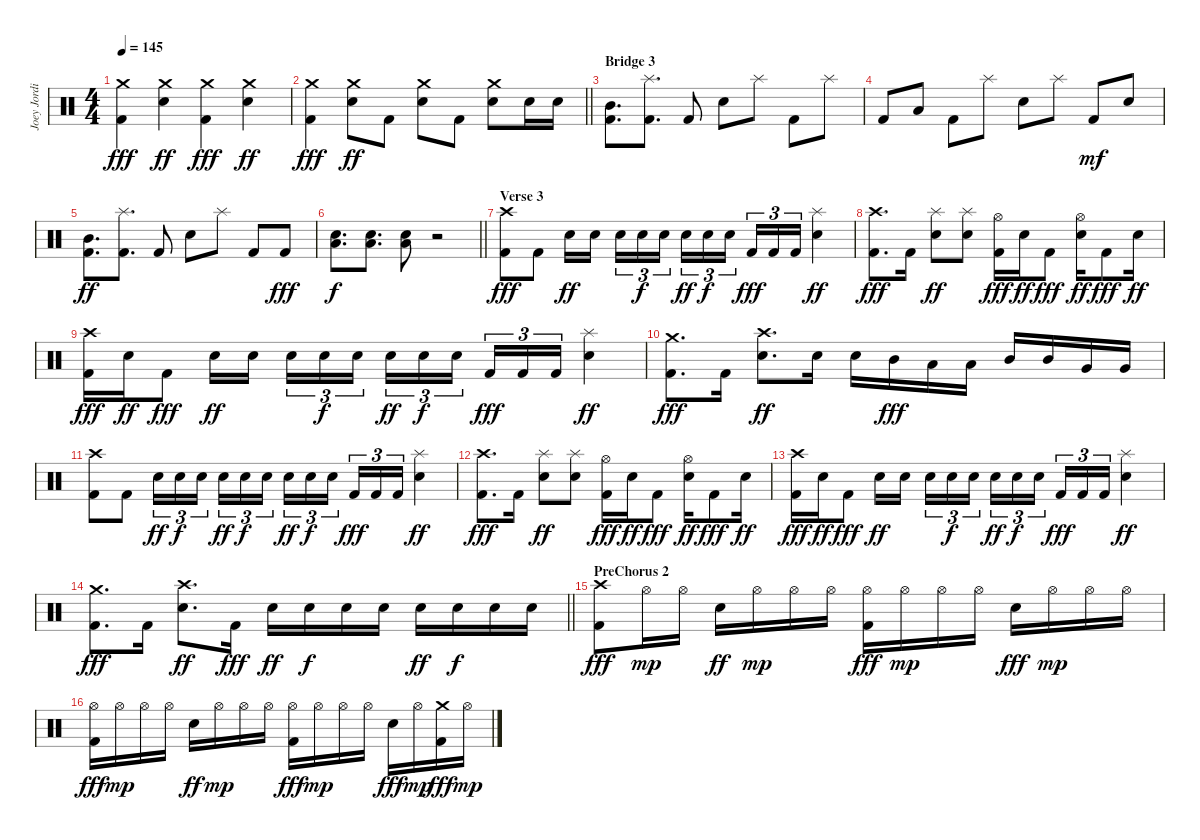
\track ("Joey Jordison" "Joey Jordi") {instrument percussion}
\staff {score}
\articulation defaults
\ts (4 4)
\tempo 145
\clef neutral
\ks c
("Crash medium (hit)" "Kick (hit) 2").4{dy fff} ("Crash medium (hit)" "Electric Snare (hit)").4{dy ff} ("Crash medium (hit)" "Kick (hit) 2").4{dy fff} ("Crash medium (hit)" "Electric Snare (hit)").4{dy ff} |
\barLineRight lightlight
("Crash medium (hit)" "Kick (hit) 2").4{dy fff} ("Crash medium (hit)" "Electric Snare (hit)").8{dy ff} "Kick (hit) 2".8 ("Crash medium (hit)" "Electric Snare (hit)").8 "Kick (hit) 2".8 ("Crash medium (hit)" "Electric Snare (hit)").8 "Electric Snare (hit)".16 "Electric Snare (hit)".16 |
\section ("" "Bridge 3")
("Mid Tom (hit)" "Kick (hit) 2").8{d} ("Splash (hit)" "Kick (hit) 2").8{d} "Kick (hit) 2".8 "Electric Snare (hit)".8 "Splash (hit)".8 "Kick (hit) 2".8 "Splash (hit)".8 |
"Kick (hit) 2".8 "Low Tom (hit)".8 "Kick (hit) 2".8 "Splash (hit)".8 "Electric Snare (hit)".8 "Splash (hit)".8 "Kick (hit) 2".8{dy mf} "Electric Snare (hit)".8 |
("Mid Tom (hit)" "Kick (hit) 2").8{d dy ff} ("Splash (hit)" "Kick (hit) 2").8{d} "Kick (hit) 2".8 "Electric Snare (hit)".8 "Splash (hit)".8 "Kick (hit) 2".8 "Kick (hit) 2".8{dy fff} |
\barLineRight lightlight
("Electric Snare (hit)" "Low Floor Tom (hit)").8{d dy f} ("Electric Snare (hit)" "Low Floor Tom (hit)").8{d} ("Electric Snare (hit)" "Low Floor Tom (hit)").8 r.2 |
\section ("" "Verse 3")
("Crash high (hit)" "Kick (hit) 2").8{dy fff} "Kick (hit) 2".8 "Electric Snare (hit)".16{dy ff} "Electric Snare (hit)".16{beam splitsecondary} "Electric Snare (hit)".16{tu (3 2)} "Electric Snare (hit)".16{tu (3 2) dy f} "Electric Snare (hit)".16{tu (3 2)} "Electric Snare (hit)".16{tu (3 2) dy ff} "Electric Snare (hit)".16{tu (3 2) dy f} "Electric Snare (hit)".16{tu (3 2) beam splitsecondary} "Kick (hit) 2".16{tu (3 2) dy fff} "Kick (hit) 2".16{tu (3 2)} "Kick (hit) 2".16{tu (3 2)} ("Splash (hit)" "Electric Snare (hit)").4{dy ff} |
("Crash high (hit)" "Kick (hit) 2").8{d dy fff} "Kick (hit) 2".16 ("Splash (hit)" "Electric Snare (hit)").8{dy ff} ("Splash (hit)" "Electric Snare (hit)").8 ("Hi-Hat (open)" "Kick (hit) 2").16{dy fff} "Electric Snare (hit)".16{dy ff} "Kick (hit) 2".8{dy fff} ("Hi-Hat (open)" "Electric Snare (hit)").16{dy ff} "Kick (hit) 2".8{dy fff} "Electric Snare (hit)".16{dy ff} |
("Crash high (hit)" "Kick (hit) 2").16{dy fff} "Electric Snare (hit)".16{dy ff} "Kick (hit) 2".8{dy fff} "Electric Snare (hit)".16{dy ff} "Electric Snare (hit)".16{beam splitsecondary} "Electric Snare (hit)".16{tu (3 2)} "Electric Snare (hit)".16{tu (3 2) dy f} "Electric Snare (hit)".16{tu (3 2)} "Electric Snare (hit)".16{tu (3 2) dy ff} "Electric Snare (hit)".16{tu (3 2) dy f} "Electric Snare (hit)".16{tu (3 2) beam splitsecondary} "Kick (hit) 2".16{tu (3 2) dy fff} "Kick (hit) 2".16{tu (3 2)} "Kick (hit) 2".16{tu (3 2)} ("Splash (hit)" "Electric Snare (hit)").4{dy ff} |
("Crash medium (hit)" "Kick (hit) 2").8{d dy fff} "Kick (hit) 2".16 ("Crash high (hit)" "Electric Snare (hit)").8{d dy ff} "Electric Snare (hit)".16 "Electric Snare (hit)".16 "Mid Tom (hit)".16{dy fff} "Low Tom (hit)".16 "Low Tom (hit)".16 "Mid Tom (hit)".16 "Mid Tom (hit)".16 "Very Low Tom (hit)".16 "Very Low Tom (hit)".16 |
("Crash high (hit)" "Kick (hit) 2").8 "Kick (hit) 2".8 "Electric Snare (hit)".16{tu (3 2) dy ff} "Electric Snare (hit)".16{tu (3 2) dy f} "Electric Snare (hit)".16{tu (3 2) beam splitsecondary} "Electric Snare (hit)".16{tu (3 2) dy ff} "Electric Snare (hit)".16{tu (3 2) dy f} "Electric Snare (hit)".16{tu (3 2)} "Electric Snare (hit)".16{tu (3 2) dy ff} "Electric Snare (hit)".16{tu (3 2) dy f} "Electric Snare (hit)".16{tu (3 2) beam splitsecondary} "Kick (hit) 2".16{tu (3 2) dy fff} "Kick (hit) 2".16{tu (3 2)} "Kick (hit) 2".16{tu (3 2)} ("Splash (hit)" "Electric Snare (hit)").4{dy ff} |
("Crash high (hit)" "Kick (hit) 2").8{d dy fff} "Kick (hit) 2".16 ("Splash (hit)" "Electric Snare (hit)").8{dy ff} ("Splash (hit)" "Electric Snare (hit)").8 ("Hi-Hat (open)" "Kick (hit) 2").16{dy fff} "Electric Snare (hit)".16{dy ff} "Kick (hit) 2".8{dy fff} ("Hi-Hat (open)" "Electric Snare (hit)").16{dy ff} "Kick (hit) 2".8{dy fff} "Electric Snare (hit)".16{dy ff} |
("Crash high (hit)" "Kick (hit) 2").16{dy fff} "Electric Snare (hit)".16{dy ff} "Kick (hit) 2".8{dy fff} "Electric Snare (hit)".16{dy ff} "Electric Snare (hit)".16{beam splitsecondary} "Electric Snare (hit)".16{tu (3 2)} "Electric Snare (hit)".16{tu (3 2) dy f} "Electric Snare (hit)".16{tu (3 2)} "Electric Snare (hit)".16{tu (3 2) dy ff} "Electric Snare (hit)".16{tu (3 2) dy f} "Electric Snare (hit)".16{tu (3 2) beam splitsecondary} "Kick (hit) 2".16{tu (3 2) dy fff} "Kick (hit) 2".16{tu (3 2)} "Kick (hit) 2".16{tu (3 2)} ("Splash (hit)" "Electric Snare (hit)").4{dy ff} |
\barLineRight lightlight
("Crash medium (hit)" "Kick (hit) 2").8{d dy fff} "Kick (hit) 2".16 ("Crash high (hit)" "Electric Snare (hit)").8{d dy ff} "Kick (hit) 2".16{dy fff} "Electric Snare (hit)".16{dy ff} "Electric Snare (hit)".16{dy f} "Electric Snare (hit)".16 "Electric Snare (hit)".16 "Electric Snare (hit)".16{dy ff} "Electric Snare (hit)".16{dy f} "Electric Snare (hit)".16 "Electric Snare (hit)".16 |
\section ("" "PreChorus 2")
("Crash high (hit)" "Kick (hit) 2").8{dy fff} "Hi-Hat (open)".16{dy mp} "Hi-Hat (open)".16 "Electric Snare (hit)".16{dy ff} "Hi-Hat (open)".16{dy mp} "Hi-Hat (open)".16 "Hi-Hat (open)".16 ("Hi-Hat (open)" "Kick (hit) 2").16{dy fff} "Hi-Hat (open)".16{dy mp} "Hi-Hat (open)".16 "Hi-Hat (open)".16 "Electric Snare (hit)".16{dy fff} "Hi-Hat (open)".16{dy mp} "Hi-Hat (open)".16 "Hi-Hat (open)".16 |
("Hi-Hat (open)" "Kick (hit) 2").16{dy fff} "Hi-Hat (open)".16{dy mp} "Hi-Hat (open)".16 "Hi-Hat (open)".16 "Electric Snare (hit)".16{dy ff} "Hi-Hat (open)".16{dy mp} "Hi-Hat (open)".16 "Hi-Hat (open)".16 ("Hi-Hat (open)" "Kick (hit) 2").16{dy fff} "Hi-Hat (open)".16{dy mp} "Hi-Hat (open)".16 "Hi-Hat (open)".16 "Electric Snare (hit)".16{dy fff} "Hi-Hat (open)".16{dy mp} ("Crash medium (hit)" "Kick (hit) 2").16{dy fff} "Hi-Hat (open)".16{dy mp}
